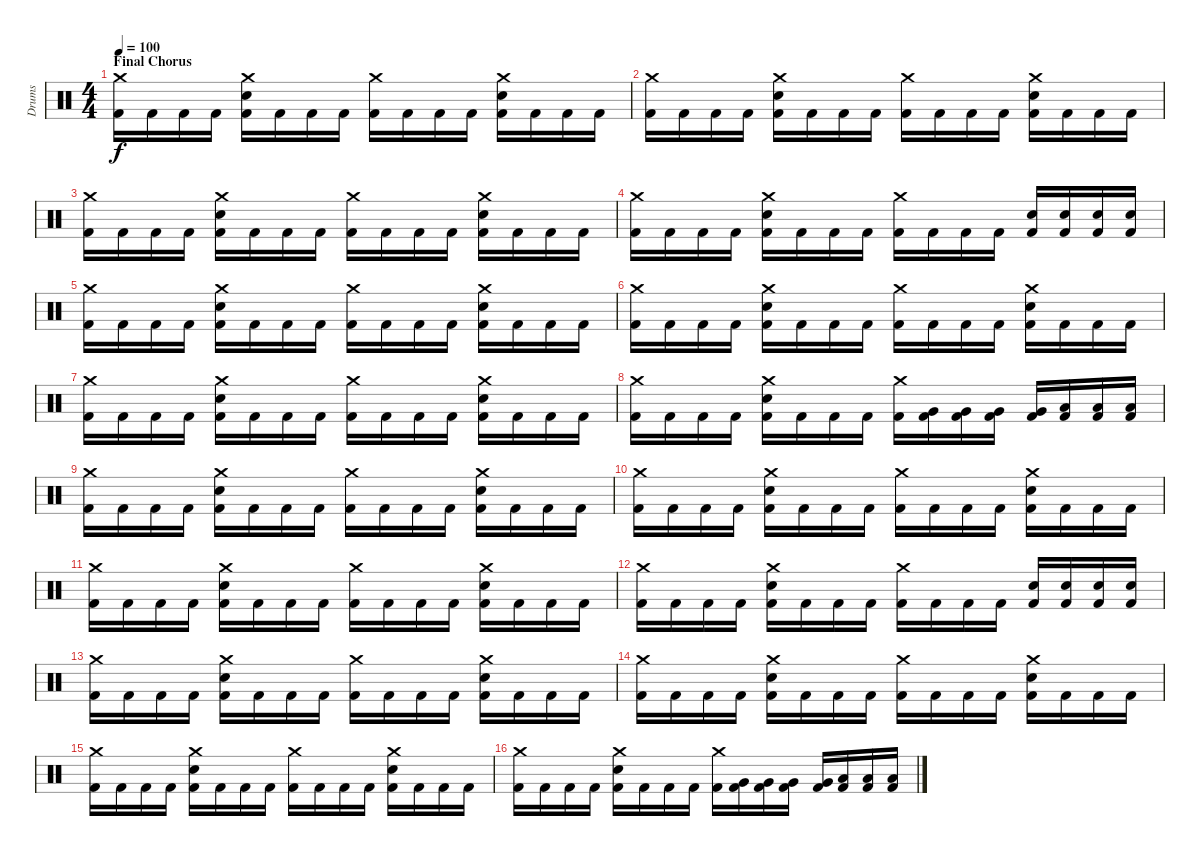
\track ("Drums" "Drums") {instrument percussion}
\staff {score}
\articulation defaults
\ts (4 4)
\section ("" "Final Chorus")
\tempo 100
\clef neutral
\ks c
("Crash medium (hit)" "Kick (hit) 2").16{dy f} "Kick (hit) 2".16 "Kick (hit) 2".16 "Kick (hit) 2".16 ("Crash medium (hit)" "Snare (hit) 2" "Kick (hit) 2").16 "Kick (hit) 2".16 "Kick (hit) 2".16 "Kick (hit) 2".16 ("Crash medium (hit)" "Kick (hit) 2").16 "Kick (hit) 2".16 "Kick (hit) 2".16 "Kick (hit) 2".16 ("Crash medium (hit)" "Snare (hit) 2" "Kick (hit) 2").16 "Kick (hit) 2".16 "Kick (hit) 2".16 "Kick (hit) 2".16 |
("Crash medium (hit)" "Kick (hit) 2").16 "Kick (hit) 2".16 "Kick (hit) 2".16 "Kick (hit) 2".16 ("Crash medium (hit)" "Snare (hit) 2" "Kick (hit) 2").16 "Kick (hit) 2".16 "Kick (hit) 2".16 "Kick (hit) 2".16 ("Crash medium (hit)" "Kick (hit) 2").16 "Kick (hit) 2".16 "Kick (hit) 2".16 "Kick (hit) 2".16 ("Crash medium (hit)" "Snare (hit) 2" "Kick (hit) 2").16 "Kick (hit) 2".16 "Kick (hit) 2".16 "Kick (hit) 2".16 |
("Crash medium (hit)" "Kick (hit) 2").16 "Kick (hit) 2".16 "Kick (hit) 2".16 "Kick (hit) 2".16 ("Crash medium (hit)" "Snare (hit) 2" "Kick (hit) 2").16 "Kick (hit) 2".16 "Kick (hit) 2".16 "Kick (hit) 2".16 ("Crash medium (hit)" "Kick (hit) 2").16 "Kick (hit) 2".16 "Kick (hit) 2".16 "Kick (hit) 2".16 ("Crash medium (hit)" "Snare (hit) 2" "Kick (hit) 2").16 "Kick (hit) 2".16 "Kick (hit) 2".16 "Kick (hit) 2".16 |
("Crash medium (hit)" "Kick (hit) 2").16 "Kick (hit) 2".16 "Kick (hit) 2".16 "Kick (hit) 2".16 ("Crash medium (hit)" "Snare (hit) 2" "Kick (hit) 2").16 "Kick (hit) 2".16 "Kick (hit) 2".16 "Kick (hit) 2".16 ("Crash medium (hit)" "Kick (hit) 2").16 "Kick (hit) 2".16 "Kick (hit) 2".16 "Kick (hit) 2".16 ("Snare (hit) 2" "Kick (hit) 2").16 ("Snare (hit) 2" "Kick (hit) 2").16 ("Snare (hit) 2" "Kick (hit) 2").16 ("Snare (hit) 2" "Kick (hit) 2").16 |
("Crash medium (hit)" "Kick (hit) 2").16 "Kick (hit) 2".16 "Kick (hit) 2".16 "Kick (hit) 2".16 ("Crash medium (hit)" "Snare (hit) 2" "Kick (hit) 2").16 "Kick (hit) 2".16 "Kick (hit) 2".16 "Kick (hit) 2".16 ("Crash medium (hit)" "Kick (hit) 2").16 "Kick (hit) 2".16 "Kick (hit) 2".16 "Kick (hit) 2".16 ("Crash medium (hit)" "Snare (hit) 2" "Kick (hit) 2").16 "Kick (hit) 2".16 "Kick (hit) 2".16 "Kick (hit) 2".16 |
("Crash medium (hit)" "Kick (hit) 2").16 "Kick (hit) 2".16 "Kick (hit) 2".16 "Kick (hit) 2".16 ("Crash medium (hit)" "Snare (hit) 2" "Kick (hit) 2").16 "Kick (hit) 2".16 "Kick (hit) 2".16 "Kick (hit) 2".16 ("Crash medium (hit)" "Kick (hit) 2").16 "Kick (hit) 2".16 "Kick (hit) 2".16 "Kick (hit) 2".16 ("Crash medium (hit)" "Snare (hit) 2" "Kick (hit) 2").16 "Kick (hit) 2".16 "Kick (hit) 2".16 "Kick (hit) 2".16 |
("Crash medium (hit)" "Kick (hit) 2").16 "Kick (hit) 2".16 "Kick (hit) 2".16 "Kick (hit) 2".16 ("Crash medium (hit)" "Snare (hit) 2" "Kick (hit) 2").16 "Kick (hit) 2".16 "Kick (hit) 2".16 "Kick (hit) 2".16 ("Crash medium (hit)" "Kick (hit) 2").16 "Kick (hit) 2".16 "Kick (hit) 2".16 "Kick (hit) 2".16 ("Crash medium (hit)" "Snare (hit) 2" "Kick (hit) 2").16 "Kick (hit) 2".16 "Kick (hit) 2".16 "Kick (hit) 2".16 |
("Crash medium (hit)" "Kick (hit) 2").16 "Kick (hit) 2".16 "Kick (hit) 2".16 "Kick (hit) 2".16 ("Crash medium (hit)" "Snare (hit) 2" "Kick (hit) 2").16 "Kick (hit) 2".16 "Kick (hit) 2".16 "Kick (hit) 2".16 ("Crash medium (hit)" "Kick (hit) 2").16 ("Very Low Tom (hit)" "Kick (hit) 2").16 ("Very Low Tom (hit)" "Kick (hit) 2").16 ("Very Low Tom (hit)" "Kick (hit) 2").16 ("Very Low Tom (hit)" "Kick (hit) 2").16 ("Low Floor Tom (hit)" "Kick (hit) 2").16 ("Low Floor Tom (hit)" "Kick (hit) 2").16 ("Low Floor Tom (hit)" "Kick (hit) 2").16 |
("Crash medium (hit)" "Kick (hit) 2").16 "Kick (hit) 2".16 "Kick (hit) 2".16 "Kick (hit) 2".16 ("Crash medium (hit)" "Snare (hit) 2" "Kick (hit) 2").16 "Kick (hit) 2".16 "Kick (hit) 2".16 "Kick (hit) 2".16 ("Crash medium (hit)" "Kick (hit) 2").16 "Kick (hit) 2".16 "Kick (hit) 2".16 "Kick (hit) 2".16 ("Crash medium (hit)" "Snare (hit) 2" "Kick (hit) 2").16 "Kick (hit) 2".16 "Kick (hit) 2".16 "Kick (hit) 2".16 |
("Crash medium (hit)" "Kick (hit) 2").16 "Kick (hit) 2".16 "Kick (hit) 2".16 "Kick (hit) 2".16 ("Crash medium (hit)" "Snare (hit) 2" "Kick (hit) 2").16 "Kick (hit) 2".16 "Kick (hit) 2".16 "Kick (hit) 2".16 ("Crash medium (hit)" "Kick (hit) 2").16 "Kick (hit) 2".16 "Kick (hit) 2".16 "Kick (hit) 2".16 ("Crash medium (hit)" "Snare (hit) 2" "Kick (hit) 2").16 "Kick (hit) 2".16 "Kick (hit) 2".16 "Kick (hit) 2".16 |
("Crash medium (hit)" "Kick (hit) 2").16 "Kick (hit) 2".16 "Kick (hit) 2".16 "Kick (hit) 2".16 ("Crash medium (hit)" "Snare (hit) 2" "Kick (hit) 2").16 "Kick (hit) 2".16 "Kick (hit) 2".16 "Kick (hit) 2".16 ("Crash medium (hit)" "Kick (hit) 2").16 "Kick (hit) 2".16 "Kick (hit) 2".16 "Kick (hit) 2".16 ("Crash medium (hit)" "Snare (hit) 2" "Kick (hit) 2").16 "Kick (hit) 2".16 "Kick (hit) 2".16 "Kick (hit) 2".16 |
("Crash medium (hit)" "Kick (hit) 2").16 "Kick (hit) 2".16 "Kick (hit) 2".16 "Kick (hit) 2".16 ("Crash medium (hit)" "Snare (hit) 2" "Kick (hit) 2").16 "Kick (hit) 2".16 "Kick (hit) 2".16 "Kick (hit) 2".16 ("Crash medium (hit)" "Kick (hit) 2").16 "Kick (hit) 2".16 "Kick (hit) 2".16 "Kick (hit) 2".16 ("Snare (hit) 2" "Kick (hit) 2").16 ("Snare (hit) 2" "Kick (hit) 2").16 ("Snare (hit) 2" "Kick (hit) 2").16 ("Snare (hit) 2" "Kick (hit) 2").16 |
("Crash medium (hit)" "Kick (hit) 2").16 "Kick (hit) 2".16 "Kick (hit) 2".16 "Kick (hit) 2".16 ("Crash medium (hit)" "Snare (hit) 2" "Kick (hit) 2").16 "Kick (hit) 2".16 "Kick (hit) 2".16 "Kick (hit) 2".16 ("Crash medium (hit)" "Kick (hit) 2").16 "Kick (hit) 2".16 "Kick (hit) 2".16 "Kick (hit) 2".16 ("Crash medium (hit)" "Snare (hit) 2" "Kick (hit) 2").16 "Kick (hit) 2".16 "Kick (hit) 2".16 "Kick (hit) 2".16 |
("Crash medium (hit)" "Kick (hit) 2").16 "Kick (hit) 2".16 "Kick (hit) 2".16 "Kick (hit) 2".16 ("Crash medium (hit)" "Snare (hit) 2" "Kick (hit) 2").16 "Kick (hit) 2".16 "Kick (hit) 2".16 "Kick (hit) 2".16 ("Crash medium (hit)" "Kick (hit) 2").16 "Kick (hit) 2".16 "Kick (hit) 2".16 "Kick (hit) 2".16 ("Crash medium (hit)" "Snare (hit) 2" "Kick (hit) 2").16 "Kick (hit) 2".16 "Kick (hit) 2".16 "Kick (hit) 2".16 |
("Crash medium (hit)" "Kick (hit) 2").16 "Kick (hit) 2".16 "Kick (hit) 2".16 "Kick (hit) 2".16 ("Crash medium (hit)" "Snare (hit) 2" "Kick (hit) 2").16 "Kick (hit) 2".16 "Kick (hit) 2".16 "Kick (hit) 2".16 ("Crash medium (hit)" "Kick (hit) 2").16 "Kick (hit) 2".16 "Kick (hit) 2".16 "Kick (hit) 2".16 ("Crash medium (hit)" "Snare (hit) 2" "Kick (hit) 2").16 "Kick (hit) 2".16 "Kick (hit) 2".16 "Kick (hit) 2".16 |
("Crash medium (hit)" "Kick (hit) 2").16 "Kick (hit) 2".16 "Kick (hit) 2".16 "Kick (hit) 2".16 ("Crash medium (hit)" "Snare (hit) 2" "Kick (hit) 2").16 "Kick (hit) 2".16 "Kick (hit) 2".16 "Kick (hit) 2".16 ("Crash medium (hit)" "Kick (hit) 2").16 ("Very Low Tom (hit)" "Kick (hit) 2").16 ("Very Low Tom (hit)" "Kick (hit) 2").16 ("Very Low Tom (hit)" "Kick (hit) 2").16 ("Very Low Tom (hit)" "Kick (hit) 2").16 ("Low Floor Tom (hit)" "Kick (hit) 2").16 ("Low Floor Tom (hit)" "Kick (hit) 2").16 ("Low Floor Tom (hit)" "Kick (hit) 2").16
